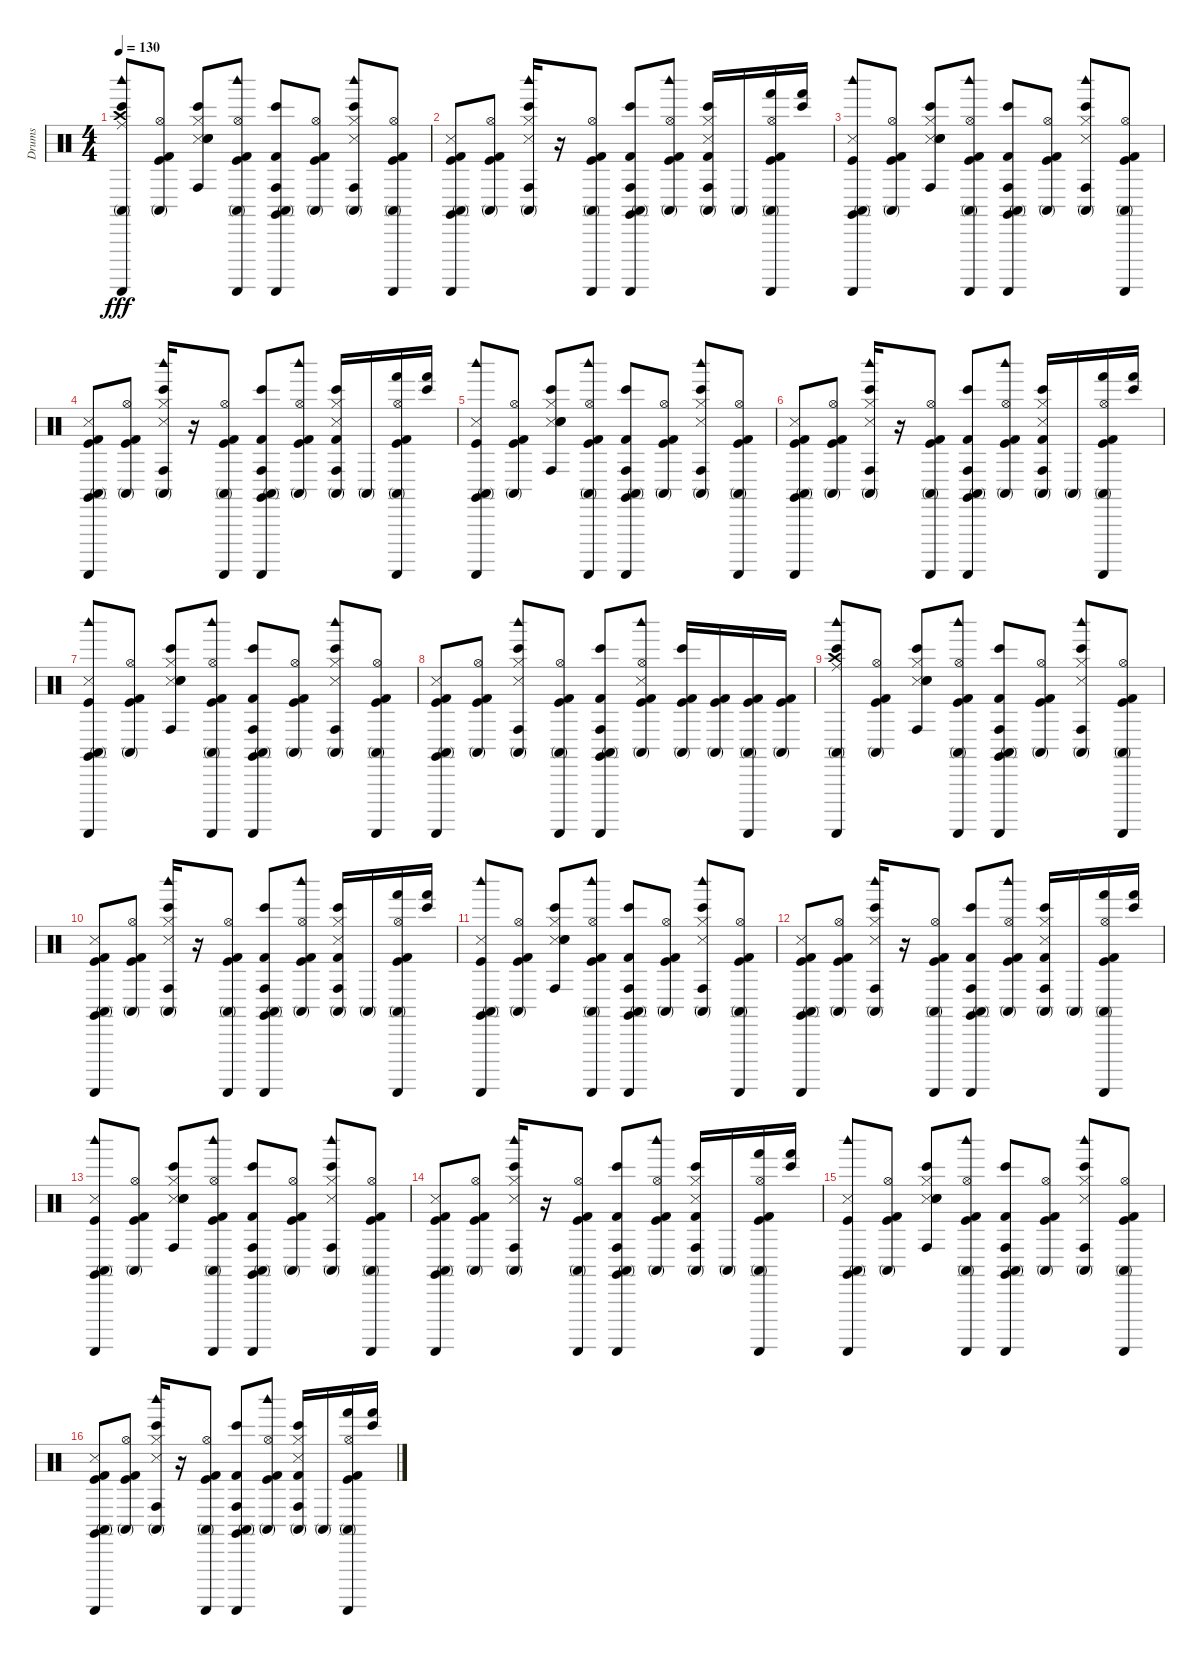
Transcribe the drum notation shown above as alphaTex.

\track ("Drums" "Drums") {instrument percussion}
\staff {score}
\articulation defaults
\ts (4 4)
\tempo 130
\clef neutral
\ks c
("Guiro (scrap-return)" "Woodblock high (hit)" "Bongo High (hit)" "Conga high (mute)" "Crash high (hit)" "Ride (middle)").8{dy fff} ("Conga high (mute)" "Hi-Hat (open)" "Kick (hit)" "Kick (hit) 2").8 ("Bongo High (hit)" "Conga high (hit)" "Snare (side stick) 3" "Hi-Hat (closed)" "Electric Snare (hit)" "Snare (hit) 2").8 ("Kick (hit) 2" "Kick (hit)" "Guiro (scrap-return)" "Woodblock high (hit)" "Conga high (mute)" "Hi-Hat (open)").8 ("Kick (hit) 2" "Guiro (scrap-return)" "Claves (hit)" "Bongo High (hit)" "Conga high (mute)" "Conga high (hit)").8 ("Conga high (mute)" "Hi-Hat (open)" "Kick (hit) 2" "Kick (hit)").8 ("Woodblock high (hit)" "Bongo High (hit)" "Conga high (mute)" "Conga high (hit)" "Snare (side stick) 3" "Hi-Hat (closed)").8 ("Kick (hit) 2" "Kick (hit)" "Guiro (scrap-return)" "Conga high (mute)" "Hi-Hat (open)").8 |
("Guiro (scrap-return)" "Claves (hit)" "Conga high (mute)" "Snare (side stick) 3" "Kick (hit)" "Kick (hit) 2").8 ("Conga high (mute)" "Hi-Hat (open)" "Kick (hit)" "Kick (hit) 2").8 ("Woodblock high (hit)" "Conga high (mute)" "Conga high (hit)" "Bongo High (hit)" "Snare (side stick) 3" "Hi-Hat (closed)").16 r.16 ("Guiro (scrap-return)" "Conga high (mute)" "Kick (hit) 2" "Kick (hit)" "Hi-Hat (open)").8 ("Guiro (scrap-return)" "Claves (hit)" "Conga high (mute)" "Conga high (hit)" "Kick (hit) 2" "Bongo High (hit)").8 ("Woodblock high (hit)" "Conga high (mute)" "Hi-Hat (open)" "Kick (hit) 2" "Kick (hit)").8 ("Conga high (mute)" "Conga high (hit)" "Bongo High (hit)" "Snare (side stick) 3" "Hi-Hat (closed)" "Kick (hit) 2").16 "Conga high (mute)".16 ("Guiro (scrap-return)" "Hand (hit)" "Conga high (mute)" "Kick (hit) 2" "Kick (hit)" "Hi-Hat (open)").16 ("Bongo High (hit)" "Hand (hit)").16 |
("Guiro (scrap-return)" "Woodblock high (hit)" "Claves (hit)" "Conga high (mute)" "Snare (side stick) 3" "Kick (hit)").8 ("Conga high (mute)" "Hi-Hat (open)" "Kick (hit)" "Kick (hit) 2").8 ("Conga high (hit)" "Bongo High (hit)" "Snare (side stick) 3" "Hi-Hat (closed)" "Electric Snare (hit)" "Snare (hit) 2").8 ("Guiro (scrap-return)" "Woodblock high (hit)" "Conga high (mute)" "Kick (hit) 2" "Kick (hit)" "Hi-Hat (open)").8 ("Guiro (scrap-return)" "Claves (hit)" "Conga high (mute)" "Conga high (hit)" "Kick (hit) 2" "Bongo High (hit)").8 ("Conga high (mute)" "Hi-Hat (open)" "Kick (hit) 2" "Kick (hit)").8 ("Woodblock high (hit)" "Conga high (mute)" "Conga high (hit)" "Bongo High (hit)" "Snare (side stick) 3" "Hi-Hat (closed)").8 ("Guiro (scrap-return)" "Conga high (mute)" "Kick (hit) 2" "Kick (hit)" "Hi-Hat (open)").8 |
("Guiro (scrap-return)" "Claves (hit)" "Conga high (mute)" "Snare (side stick) 3" "Kick (hit)" "Kick (hit) 2").8 ("Conga high (mute)" "Hi-Hat (open)" "Kick (hit)" "Kick (hit) 2").8 ("Woodblock high (hit)" "Conga high (mute)" "Conga high (hit)" "Bongo High (hit)" "Snare (side stick) 3" "Hi-Hat (closed)").16 r.16 ("Guiro (scrap-return)" "Conga high (mute)" "Kick (hit) 2" "Kick (hit)" "Hi-Hat (open)").8 ("Guiro (scrap-return)" "Claves (hit)" "Conga high (mute)" "Conga high (hit)" "Kick (hit) 2" "Bongo High (hit)").8 ("Woodblock high (hit)" "Conga high (mute)" "Hi-Hat (open)" "Kick (hit) 2" "Kick (hit)").8 ("Conga high (mute)" "Conga high (hit)" "Bongo High (hit)" "Snare (side stick) 3" "Hi-Hat (closed)" "Kick (hit) 2").16 "Conga high (mute)".16 ("Guiro (scrap-return)" "Hand (hit)" "Conga high (mute)" "Kick (hit) 2" "Kick (hit)" "Hi-Hat (open)").16 ("Bongo High (hit)" "Hand (hit)").16 |
("Guiro (scrap-return)" "Woodblock high (hit)" "Claves (hit)" "Conga high (mute)" "Snare (side stick) 3" "Kick (hit)").8 ("Conga high (mute)" "Hi-Hat (open)" "Kick (hit)" "Kick (hit) 2").8 ("Conga high (hit)" "Bongo High (hit)" "Snare (side stick) 3" "Hi-Hat (closed)" "Electric Snare (hit)" "Snare (hit) 2").8 ("Guiro (scrap-return)" "Woodblock high (hit)" "Conga high (mute)" "Kick (hit) 2" "Kick (hit)" "Hi-Hat (open)").8 ("Guiro (scrap-return)" "Claves (hit)" "Conga high (mute)" "Conga high (hit)" "Kick (hit) 2" "Bongo High (hit)").8 ("Conga high (mute)" "Hi-Hat (open)" "Kick (hit) 2" "Kick (hit)").8 ("Woodblock high (hit)" "Conga high (mute)" "Conga high (hit)" "Bongo High (hit)" "Snare (side stick) 3" "Hi-Hat (closed)").8 ("Guiro (scrap-return)" "Conga high (mute)" "Kick (hit) 2" "Kick (hit)" "Hi-Hat (open)").8 |
("Guiro (scrap-return)" "Claves (hit)" "Conga high (mute)" "Snare (side stick) 3" "Kick (hit)" "Kick (hit) 2").8 ("Conga high (mute)" "Hi-Hat (open)" "Kick (hit)" "Kick (hit) 2").8 ("Woodblock high (hit)" "Conga high (mute)" "Conga high (hit)" "Bongo High (hit)" "Snare (side stick) 3" "Hi-Hat (closed)").16 r.16 ("Guiro (scrap-return)" "Conga high (mute)" "Kick (hit) 2" "Kick (hit)" "Hi-Hat (open)").8 ("Guiro (scrap-return)" "Claves (hit)" "Conga high (mute)" "Conga high (hit)" "Kick (hit) 2" "Bongo High (hit)").8 ("Woodblock high (hit)" "Conga high (mute)" "Hi-Hat (open)" "Kick (hit) 2" "Kick (hit)").8 ("Conga high (mute)" "Conga high (hit)" "Bongo High (hit)" "Snare (side stick) 3" "Hi-Hat (closed)" "Kick (hit) 2").16 "Conga high (mute)".16 ("Guiro (scrap-return)" "Hand (hit)" "Conga high (mute)" "Kick (hit) 2" "Kick (hit)" "Hi-Hat (open)").16 ("Bongo High (hit)" "Hand (hit)").16 |
("Guiro (scrap-return)" "Woodblock high (hit)" "Claves (hit)" "Conga high (mute)" "Snare (side stick) 3" "Kick (hit)").8 ("Conga high (mute)" "Hi-Hat (open)" "Kick (hit)" "Kick (hit) 2").8 ("Conga high (hit)" "Bongo High (hit)" "Snare (side stick) 3" "Hi-Hat (closed)" "Electric Snare (hit)" "Snare (hit) 2").8 ("Guiro (scrap-return)" "Woodblock high (hit)" "Conga high (mute)" "Kick (hit) 2" "Kick (hit)" "Hi-Hat (open)").8 ("Guiro (scrap-return)" "Claves (hit)" "Conga high (mute)" "Conga high (hit)" "Kick (hit) 2" "Bongo High (hit)").8 ("Conga high (mute)" "Hi-Hat (open)" "Kick (hit) 2" "Kick (hit)").8 ("Woodblock high (hit)" "Conga high (mute)" "Conga high (hit)" "Bongo High (hit)" "Snare (side stick) 3" "Hi-Hat (closed)").8 ("Guiro (scrap-return)" "Conga high (mute)" "Kick (hit) 2" "Kick (hit)" "Hi-Hat (open)").8 |
("Guiro (scrap-return)" "Claves (hit)" "Conga high (mute)" "Snare (side stick) 3" "Kick (hit)" "Kick (hit) 2").8 ("Conga high (mute)" "Hi-Hat (open)" "Kick (hit)" "Kick (hit) 2").8 ("Woodblock high (hit)" "Conga high (mute)" "Conga high (hit)" "Bongo High (hit)" "Snare (side stick) 3" "Hi-Hat (closed)").8 ("Guiro (scrap-return)" "Conga high (mute)" "Kick (hit) 2" "Kick (hit)" "Hi-Hat (open)").8 ("Guiro (scrap-return)" "Claves (hit)" "Conga high (mute)" "Conga high (hit)" "Kick (hit) 2" "Bongo High (hit)").8 ("Woodblock high (hit)" "Conga high (mute)" "Hi-Hat (open)" "Kick (hit) 2" "Kick (hit)" "Snare (side stick) 3").8 ("Bongo High (hit)" "Kick (hit) 2" "Kick (hit)" "Conga high (mute)").16 ("Kick (hit) 2" "Kick (hit)" "Conga high (mute)").16 ("Guiro (scrap-return)" "Kick (hit) 2" "Kick (hit)" "Conga high (mute)").16 ("Kick (hit) 2" "Kick (hit)" "Conga high (mute)").16 |
("Guiro (scrap-return)" "Woodblock high (hit)" "Bongo High (hit)" "Conga high (mute)" "Crash high (hit)" "Ride (middle)").8 ("Conga high (mute)" "Hi-Hat (open)" "Kick (hit)" "Kick (hit) 2").8 ("Bongo High (hit)" "Conga high (hit)" "Snare (side stick) 3" "Hi-Hat (closed)" "Electric Snare (hit)" "Snare (hit) 2").8 ("Kick (hit) 2" "Kick (hit)" "Guiro (scrap-return)" "Woodblock high (hit)" "Conga high (mute)" "Hi-Hat (open)").8 ("Kick (hit) 2" "Guiro (scrap-return)" "Claves (hit)" "Bongo High (hit)" "Conga high (mute)" "Conga high (hit)").8 ("Conga high (mute)" "Hi-Hat (open)" "Kick (hit) 2" "Kick (hit)").8 ("Woodblock high (hit)" "Bongo High (hit)" "Conga high (mute)" "Conga high (hit)" "Snare (side stick) 3" "Hi-Hat (closed)").8 ("Kick (hit) 2" "Kick (hit)" "Guiro (scrap-return)" "Conga high (mute)" "Hi-Hat (open)").8 |
("Guiro (scrap-return)" "Claves (hit)" "Conga high (mute)" "Snare (side stick) 3" "Kick (hit)" "Kick (hit) 2").8 ("Conga high (mute)" "Hi-Hat (open)" "Kick (hit)" "Kick (hit) 2").8 ("Woodblock high (hit)" "Conga high (mute)" "Conga high (hit)" "Bongo High (hit)" "Snare (side stick) 3" "Hi-Hat (closed)").16 r.16 ("Guiro (scrap-return)" "Conga high (mute)" "Kick (hit) 2" "Kick (hit)" "Hi-Hat (open)").8 ("Guiro (scrap-return)" "Claves (hit)" "Conga high (mute)" "Conga high (hit)" "Kick (hit) 2" "Bongo High (hit)").8 ("Woodblock high (hit)" "Conga high (mute)" "Hi-Hat (open)" "Kick (hit) 2" "Kick (hit)").8 ("Conga high (mute)" "Conga high (hit)" "Bongo High (hit)" "Snare (side stick) 3" "Hi-Hat (closed)" "Kick (hit) 2").16 "Conga high (mute)".16 ("Guiro (scrap-return)" "Hand (hit)" "Conga high (mute)" "Kick (hit) 2" "Kick (hit)" "Hi-Hat (open)").16 ("Bongo High (hit)" "Hand (hit)").16 |
("Guiro (scrap-return)" "Woodblock high (hit)" "Claves (hit)" "Conga high (mute)" "Snare (side stick) 3" "Kick (hit)").8 ("Conga high (mute)" "Hi-Hat (open)" "Kick (hit)" "Kick (hit) 2").8 ("Conga high (hit)" "Bongo High (hit)" "Snare (side stick) 3" "Hi-Hat (closed)" "Electric Snare (hit)" "Snare (hit) 2").8 ("Guiro (scrap-return)" "Woodblock high (hit)" "Conga high (mute)" "Kick (hit) 2" "Kick (hit)" "Hi-Hat (open)").8 ("Guiro (scrap-return)" "Claves (hit)" "Conga high (mute)" "Conga high (hit)" "Kick (hit) 2" "Bongo High (hit)").8 ("Conga high (mute)" "Hi-Hat (open)" "Kick (hit) 2" "Kick (hit)").8 ("Woodblock high (hit)" "Conga high (mute)" "Conga high (hit)" "Bongo High (hit)" "Snare (side stick) 3" "Hi-Hat (closed)").8 ("Guiro (scrap-return)" "Conga high (mute)" "Kick (hit) 2" "Kick (hit)" "Hi-Hat (open)").8 |
("Guiro (scrap-return)" "Claves (hit)" "Conga high (mute)" "Snare (side stick) 3" "Kick (hit)" "Kick (hit) 2").8 ("Conga high (mute)" "Hi-Hat (open)" "Kick (hit)" "Kick (hit) 2").8 ("Woodblock high (hit)" "Conga high (mute)" "Conga high (hit)" "Bongo High (hit)" "Snare (side stick) 3" "Hi-Hat (closed)").16 r.16 ("Guiro (scrap-return)" "Conga high (mute)" "Kick (hit) 2" "Kick (hit)" "Hi-Hat (open)").8 ("Guiro (scrap-return)" "Claves (hit)" "Conga high (mute)" "Conga high (hit)" "Kick (hit) 2" "Bongo High (hit)").8 ("Woodblock high (hit)" "Conga high (mute)" "Hi-Hat (open)" "Kick (hit) 2" "Kick (hit)").8 ("Conga high (mute)" "Conga high (hit)" "Bongo High (hit)" "Snare (side stick) 3" "Hi-Hat (closed)" "Kick (hit) 2").16 "Conga high (mute)".16 ("Guiro (scrap-return)" "Hand (hit)" "Conga high (mute)" "Kick (hit) 2" "Kick (hit)" "Hi-Hat (open)").16 ("Bongo High (hit)" "Hand (hit)").16 |
("Guiro (scrap-return)" "Woodblock high (hit)" "Claves (hit)" "Conga high (mute)" "Snare (side stick) 3" "Kick (hit)").8 ("Conga high (mute)" "Hi-Hat (open)" "Kick (hit)" "Kick (hit) 2").8 ("Conga high (hit)" "Bongo High (hit)" "Snare (side stick) 3" "Hi-Hat (closed)" "Electric Snare (hit)" "Snare (hit) 2").8 ("Guiro (scrap-return)" "Woodblock high (hit)" "Conga high (mute)" "Kick (hit) 2" "Kick (hit)" "Hi-Hat (open)").8 ("Guiro (scrap-return)" "Claves (hit)" "Conga high (mute)" "Conga high (hit)" "Kick (hit) 2" "Bongo High (hit)").8 ("Conga high (mute)" "Hi-Hat (open)" "Kick (hit) 2" "Kick (hit)").8 ("Woodblock high (hit)" "Conga high (mute)" "Conga high (hit)" "Bongo High (hit)" "Snare (side stick) 3" "Hi-Hat (closed)").8 ("Guiro (scrap-return)" "Conga high (mute)" "Kick (hit) 2" "Kick (hit)" "Hi-Hat (open)").8 |
("Guiro (scrap-return)" "Claves (hit)" "Conga high (mute)" "Snare (side stick) 3" "Kick (hit)" "Kick (hit) 2").8 ("Conga high (mute)" "Hi-Hat (open)" "Kick (hit)" "Kick (hit) 2").8 ("Woodblock high (hit)" "Conga high (mute)" "Conga high (hit)" "Bongo High (hit)" "Snare (side stick) 3" "Hi-Hat (closed)").16 r.16 ("Guiro (scrap-return)" "Conga high (mute)" "Kick (hit) 2" "Kick (hit)" "Hi-Hat (open)").8 ("Guiro (scrap-return)" "Claves (hit)" "Conga high (mute)" "Conga high (hit)" "Kick (hit) 2" "Bongo High (hit)").8 ("Woodblock high (hit)" "Conga high (mute)" "Hi-Hat (open)" "Kick (hit) 2" "Kick (hit)").8 ("Conga high (mute)" "Conga high (hit)" "Bongo High (hit)" "Snare (side stick) 3" "Hi-Hat (closed)" "Kick (hit) 2").16 "Conga high (mute)".16 ("Guiro (scrap-return)" "Hand (hit)" "Conga high (mute)" "Kick (hit) 2" "Kick (hit)" "Hi-Hat (open)").16 ("Bongo High (hit)" "Hand (hit)").16 |
("Guiro (scrap-return)" "Woodblock high (hit)" "Claves (hit)" "Conga high (mute)" "Snare (side stick) 3" "Kick (hit)").8 ("Conga high (mute)" "Hi-Hat (open)" "Kick (hit)" "Kick (hit) 2").8 ("Conga high (hit)" "Bongo High (hit)" "Snare (side stick) 3" "Hi-Hat (closed)" "Electric Snare (hit)" "Snare (hit) 2").8 ("Guiro (scrap-return)" "Woodblock high (hit)" "Conga high (mute)" "Kick (hit) 2" "Kick (hit)" "Hi-Hat (open)").8 ("Guiro (scrap-return)" "Claves (hit)" "Conga high (mute)" "Conga high (hit)" "Kick (hit) 2" "Bongo High (hit)").8 ("Conga high (mute)" "Hi-Hat (open)" "Kick (hit) 2" "Kick (hit)").8 ("Woodblock high (hit)" "Conga high (mute)" "Conga high (hit)" "Bongo High (hit)" "Snare (side stick) 3" "Hi-Hat (closed)").8 ("Guiro (scrap-return)" "Conga high (mute)" "Kick (hit) 2" "Kick (hit)" "Hi-Hat (open)").8 |
("Guiro (scrap-return)" "Claves (hit)" "Conga high (mute)" "Snare (side stick) 3" "Kick (hit)" "Kick (hit) 2").8 ("Conga high (mute)" "Hi-Hat (open)" "Kick (hit)" "Kick (hit) 2").8 ("Woodblock high (hit)" "Conga high (mute)" "Conga high (hit)" "Bongo High (hit)" "Snare (side stick) 3" "Hi-Hat (closed)").16 r.16 ("Guiro (scrap-return)" "Conga high (mute)" "Kick (hit) 2" "Kick (hit)" "Hi-Hat (open)").8 ("Guiro (scrap-return)" "Claves (hit)" "Conga high (mute)" "Conga high (hit)" "Kick (hit) 2" "Bongo High (hit)").8 ("Woodblock high (hit)" "Conga high (mute)" "Hi-Hat (open)" "Kick (hit) 2" "Kick (hit)").8 ("Conga high (mute)" "Conga high (hit)" "Bongo High (hit)" "Snare (side stick) 3" "Hi-Hat (closed)" "Kick (hit) 2").16 "Conga high (mute)".16 ("Guiro (scrap-return)" "Hand (hit)" "Conga high (mute)" "Kick (hit) 2" "Kick (hit)" "Hi-Hat (open)").16 ("Bongo High (hit)" "Hand (hit)").16
